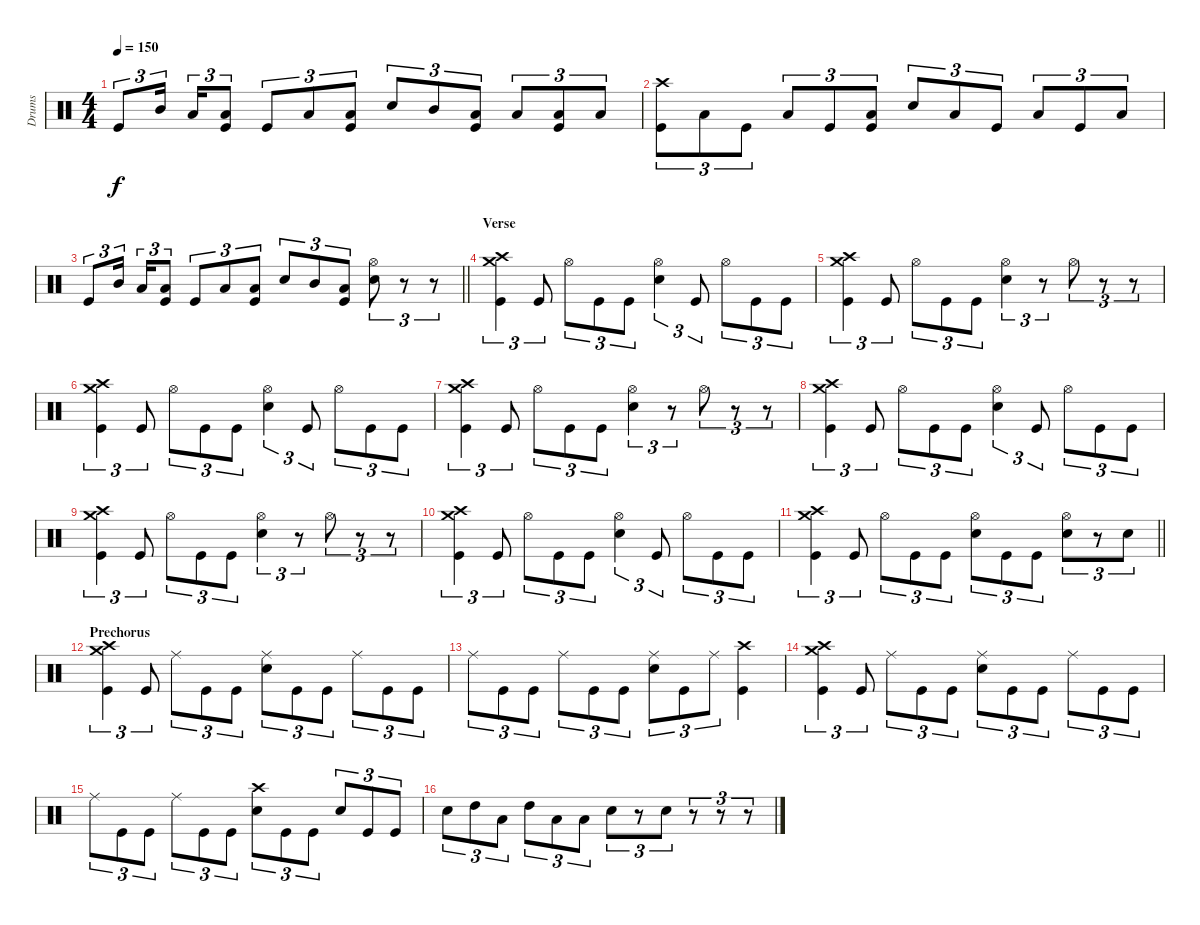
\track ("Drums" "Drums") {instrument percussion}
\staff {score}
\articulation defaults
\ts (4 4)
\tempo 150
\clef neutral
\ks c "Kick (hit)".8{tu (3 2) dy f} "Mid Tom (hit)".16{tu (3 2)} "Low Tom (hit)".16{tu (3 2)}
("Low Floor Tom (hit)" "Kick (hit)").8{tu (3 2)} "Kick (hit)".8{tu (3 2)} "Low Floor Tom (hit)".8{tu (3 2)} ("Low Floor Tom (hit)" "Kick (hit)").8{tu (3 2)} "Electric Snare (hit)".8{tu (3 2)} "Mid Tom (hit)".8{tu (3 2)} ("Low Tom (hit)" "Kick (hit)").8{tu (3 2)} "Low Floor Tom (hit)".8{tu (3 2)} ("Low Tom (hit)" "Kick (hit)").8{tu (3 2)} "Low Floor Tom (hit)".8{tu (3 2)} |
("Crash high (hit)" "Kick (hit)").8{tu (3 2)} "Low Floor Tom (hit)".8{tu (3 2)} "Kick (hit)".8{tu (3 2)} "Low Tom (hit)".8{tu (3 2)} "Kick (hit)".8{tu (3 2)} ("Low Floor Tom (hit)" "Kick (hit)").8{tu (3 2)} "Electric Snare (hit)".8{tu (3 2)} "Low Floor Tom (hit)".8{tu (3 2)} "Kick (hit)".8{tu (3 2)} "Low Tom (hit)".8{tu (3 2)} "Kick (hit)".8{tu (3 2)} "Low Floor Tom (hit)".8{tu (3 2)} |
\barLineRight lightlight "Kick (hit)".8{tu (3 2)} "Mid Tom (hit)".16{tu (3 2)} "Low Tom (hit)".16{tu (3 2)}
("Low Floor Tom (hit)" "Kick (hit)").8{tu (3 2)} "Kick (hit)".8{tu (3 2)} "Low Floor Tom (hit)".8{tu (3 2)} ("Low Floor Tom (hit)" "Kick (hit)").8{tu (3 2)} "Electric Snare (hit)".8{tu (3 2)} "Mid Tom (hit)".8{tu (3 2)} ("Low Tom (hit)" "Kick (hit)").8{tu (3 2)} ("Hi-Hat (open)" "Electric Snare (hit)").8{tu (3 2)} r.8{tu (3 2)} r.8{tu (3 2)} |
\section ("" "Verse")
("Crash high (hit)" "Crash medium (hit)" "Kick (hit)").4{tu (3 2)} "Kick (hit)".8{tu (3 2)} "Hi-Hat (open)".8{tu (3 2)} "Kick (hit)".8{tu (3 2)} "Kick (hit)".8{tu (3 2)} ("Hi-Hat (open)" "Electric Snare (hit)").4{tu (3 2)} "Kick (hit)".8{tu (3 2)} "Hi-Hat (open)".8{tu (3 2)} "Kick (hit)".8{tu (3 2)} "Kick (hit)".8{tu (3 2)} |
("Crash high (hit)" "Crash medium (hit)" "Kick (hit)").4{tu (3 2)} "Kick (hit)".8{tu (3 2)} "Hi-Hat (open)".8{tu (3 2)} "Kick (hit)".8{tu (3 2)} "Kick (hit)".8{tu (3 2)} ("Hi-Hat (open)" "Electric Snare (hit)").4{tu (3 2)} r.8{tu (3 2)} "Hi-Hat (open)".8{tu (3 2)} r.8{tu (3 2)} r.8{tu (3 2)} |
("Crash high (hit)" "Crash medium (hit)" "Kick (hit)").4{tu (3 2)} "Kick (hit)".8{tu (3 2)} "Hi-Hat (open)".8{tu (3 2)} "Kick (hit)".8{tu (3 2)} "Kick (hit)".8{tu (3 2)} ("Hi-Hat (open)" "Electric Snare (hit)").4{tu (3 2)} "Kick (hit)".8{tu (3 2)} "Hi-Hat (open)".8{tu (3 2)} "Kick (hit)".8{tu (3 2)} "Kick (hit)".8{tu (3 2)} |
("Crash high (hit)" "Crash medium (hit)" "Kick (hit)").4{tu (3 2)} "Kick (hit)".8{tu (3 2)} "Hi-Hat (open)".8{tu (3 2)} "Kick (hit)".8{tu (3 2)} "Kick (hit)".8{tu (3 2)} ("Hi-Hat (open)" "Electric Snare (hit)").4{tu (3 2)} r.8{tu (3 2)} "Hi-Hat (open)".8{tu (3 2)} r.8{tu (3 2)} r.8{tu (3 2)} |
("Crash high (hit)" "Crash medium (hit)" "Kick (hit)").4{tu (3 2)} "Kick (hit)".8{tu (3 2)} "Hi-Hat (open)".8{tu (3 2)} "Kick (hit)".8{tu (3 2)} "Kick (hit)".8{tu (3 2)} ("Hi-Hat (open)" "Electric Snare (hit)").4{tu (3 2)} "Kick (hit)".8{tu (3 2)} "Hi-Hat (open)".8{tu (3 2)} "Kick (hit)".8{tu (3 2)} "Kick (hit)".8{tu (3 2)} |
("Crash high (hit)" "Crash medium (hit)" "Kick (hit)").4{tu (3 2)} "Kick (hit)".8{tu (3 2)} "Hi-Hat (open)".8{tu (3 2)} "Kick (hit)".8{tu (3 2)} "Kick (hit)".8{tu (3 2)} ("Hi-Hat (open)" "Electric Snare (hit)").4{tu (3 2)} r.8{tu (3 2)} "Hi-Hat (open)".8{tu (3 2)} r.8{tu (3 2)} r.8{tu (3 2)} |
("Crash high (hit)" "Crash medium (hit)" "Kick (hit)").4{tu (3 2)} "Kick (hit)".8{tu (3 2)} "Hi-Hat (open)".8{tu (3 2)} "Kick (hit)".8{tu (3 2)} "Kick (hit)".8{tu (3 2)} ("Hi-Hat (open)" "Electric Snare (hit)").4{tu (3 2)} "Kick (hit)".8{tu (3 2)} "Hi-Hat (open)".8{tu (3 2)} "Kick (hit)".8{tu (3 2)} "Kick (hit)".8{tu (3 2)} |
\barLineRight lightlight
("Crash high (hit)" "Crash medium (hit)" "Kick (hit)").4{tu (3 2)} "Kick (hit)".8{tu (3 2)} "Hi-Hat (open)".8{tu (3 2)} "Kick (hit)".8{tu (3 2)} "Kick (hit)".8{tu (3 2)} ("Hi-Hat (open)" "Electric Snare (hit)").8{tu (3 2)} "Kick (hit)".8{tu (3 2)} "Kick (hit)".8{tu (3 2)} ("Hi-Hat (open)" "Electric Snare (hit)").8{tu (3 2)} r.8{tu (3 2)} "Electric Snare (hit)".8{tu (3 2)} |
\section ("" "Prechorus")
("Crash high (hit)" "Crash medium (hit)" "Kick (hit)").4{tu (3 2)} "Kick (hit)".8{tu (3 2)} "Ride (middle)".8{tu (3 2)} "Kick (hit)".8{tu (3 2)} "Kick (hit)".8{tu (3 2)} ("Ride (middle)" "Electric Snare (hit)").8{tu (3 2)} "Kick (hit)".8{tu (3 2)} "Kick (hit)".8{tu (3 2)} "Ride (middle)".8{tu (3 2)} "Kick (hit)".8{tu (3 2)} "Kick (hit)".8{tu (3 2)} |
"Ride (middle)".8{tu (3 2)} "Kick (hit)".8{tu (3 2)} "Kick (hit)".8{tu (3 2)} "Ride (middle)".8{tu (3 2)} "Kick (hit)".8{tu (3 2)} "Kick (hit)".8{tu (3 2)} ("Ride (middle)" "Electric Snare (hit)").8{tu (3 2)} "Kick (hit)".8{tu (3 2)} "Ride (middle)".8{tu (3 2)} ("Crash high (hit)" "Kick (hit)").4 |
("Crash high (hit)" "Crash medium (hit)" "Kick (hit)").4{tu (3 2)} "Kick (hit)".8{tu (3 2)} "Ride (middle)".8{tu (3 2)} "Kick (hit)".8{tu (3 2)} "Kick (hit)".8{tu (3 2)} ("Ride (middle)" "Electric Snare (hit)").8{tu (3 2)} "Kick (hit)".8{tu (3 2)} "Kick (hit)".8{tu (3 2)} "Ride (middle)".8{tu (3 2)} "Kick (hit)".8{tu (3 2)} "Kick (hit)".8{tu (3 2)} |
"Ride (middle)".8{tu (3 2)} "Kick (hit)".8{tu (3 2)} "Kick (hit)".8{tu (3 2)} "Ride (middle)".8{tu (3 2)} "Kick (hit)".8{tu (3 2)} "Kick (hit)".8{tu (3 2)} ("Crash high (hit)" "Electric Snare (hit)").8{tu (3 2)} "Kick (hit)".8{tu (3 2)} "Kick (hit)".8{tu (3 2)} "Electric Snare (hit)".8{tu (3 2)} "Kick (hit)".8{tu (3 2)} "Kick (hit)".8{tu (3 2)} |
"Electric Snare (hit)".8{tu (3 2)} "High Tom (hit)".8{tu (3 2)} "Low Tom (hit)".8{tu (3 2)} "High Tom (hit)".8{tu (3 2)} "Low Tom (hit)".8{tu (3 2)} "Low Floor Tom (hit)".8{tu (3 2)} "Electric Snare (hit)".8{tu (3 2)} r.8{tu (3 2)} "Electric Snare (hit)".8{tu (3 2)} r.8{tu (3 2)} r.8{tu (3 2)} r.8{tu (3 2)}
